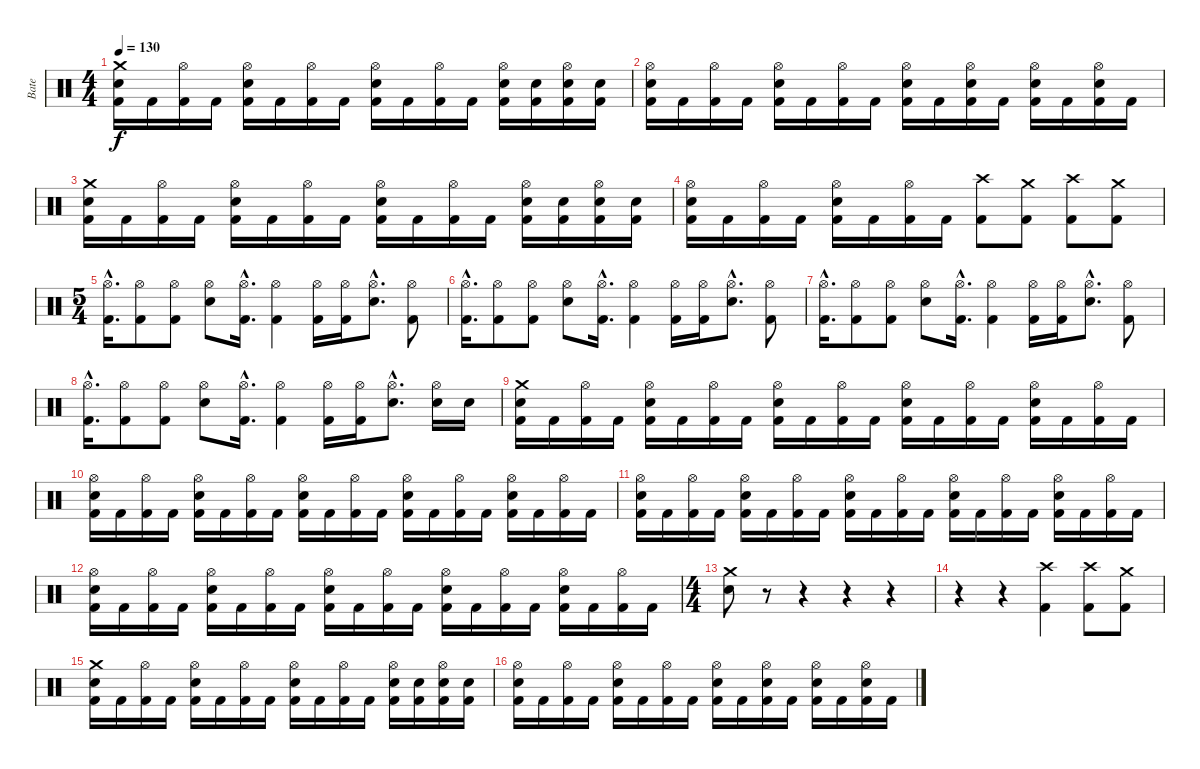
\track ("Bate" "Bate") {instrument percussion}
\staff {score}
\articulation defaults
\ts (4 4)
\tempo 130
\clef neutral
\ks c
("Crash medium (hit)" "Snare (hit) 2" "Kick (hit) 2").16{dy f} "Kick (hit) 2".16 ("Hi-Hat (open)" "Kick (hit) 2").16 "Kick (hit) 2".16 ("Hi-Hat (open)" "Snare (hit) 2" "Kick (hit) 2").16 "Kick (hit) 2".16 ("Hi-Hat (open)" "Kick (hit) 2").16 "Kick (hit) 2".16 ("Hi-Hat (open)" "Snare (hit) 2" "Kick (hit) 2").16 "Kick (hit) 2".16 ("Hi-Hat (open)" "Kick (hit) 2").16 "Kick (hit) 2".16 ("Hi-Hat (open)" "Snare (hit) 2" "Kick (hit) 2").16 ("Snare (hit) 2" "Kick (hit) 2").16 ("Hi-Hat (open)" "Snare (hit) 2" "Kick (hit) 2").16 ("Snare (hit) 2" "Kick (hit) 2").16 |
("Hi-Hat (open)" "Snare (hit) 2" "Kick (hit) 2").16 "Kick (hit) 2".16 ("Hi-Hat (open)" "Kick (hit) 2").16 "Kick (hit) 2".16 ("Hi-Hat (open)" "Snare (hit) 2" "Kick (hit) 2").16 "Kick (hit) 2".16 ("Hi-Hat (open)" "Kick (hit) 2").16 "Kick (hit) 2".16 ("Hi-Hat (open)" "Snare (hit) 2" "Kick (hit) 2").16 "Kick (hit) 2".16 ("Hi-Hat (open)" "Snare (hit) 2" "Kick (hit) 2").16 "Kick (hit) 2".16 ("Hi-Hat (open)" "Snare (hit) 2" "Kick (hit) 2").16 "Kick (hit) 2".16 ("Hi-Hat (open)" "Snare (hit) 2" "Kick (hit) 2").16 "Kick (hit) 2".16 |
("Crash medium (hit)" "Snare (hit) 2" "Kick (hit) 2").16 "Kick (hit) 2".16 ("Hi-Hat (open)" "Kick (hit) 2").16 "Kick (hit) 2".16 ("Hi-Hat (open)" "Snare (hit) 2" "Kick (hit) 2").16 "Kick (hit) 2".16 ("Hi-Hat (open)" "Kick (hit) 2").16 "Kick (hit) 2".16 ("Hi-Hat (open)" "Snare (hit) 2" "Kick (hit) 2").16 "Kick (hit) 2".16 ("Hi-Hat (open)" "Kick (hit) 2").16 "Kick (hit) 2".16 ("Hi-Hat (open)" "Snare (hit) 2" "Kick (hit) 2").16 ("Snare (hit) 2" "Kick (hit) 2").16 ("Hi-Hat (open)" "Snare (hit) 2" "Kick (hit) 2").16 ("Snare (hit) 2" "Kick (hit) 2").16 |
("Hi-Hat (open)" "Snare (hit) 2" "Kick (hit) 2").16 "Kick (hit) 2".16 ("Hi-Hat (open)" "Kick (hit) 2").16 "Kick (hit) 2".16 ("Hi-Hat (open)" "Snare (hit) 2" "Kick (hit) 2").16 "Kick (hit) 2".16 ("Hi-Hat (open)" "Kick (hit) 2").16 "Kick (hit) 2".16 ("Crash high (hit)" "Kick (hit) 2").8 ("Crash medium (hit)" "Kick (hit) 2").8 ("Crash high (hit)" "Kick (hit) 2").8 ("Crash medium (hit)" "Kick (hit) 2").8 |
\ts (5 4)
("Hi-Hat (open)"{hac} "Kick (hit) 2"{hac}).16{d} ("Hi-Hat (open)" "Kick (hit) 2").8 ("Hi-Hat (open)" "Kick (hit) 2").8 ("Hi-Hat (open)" "Snare (hit) 2").8 ("Hi-Hat (open)"{hac} "Kick (hit) 2"{hac}).16{d} ("Hi-Hat (open)" "Kick (hit) 2").4 ("Hi-Hat (open)" "Kick (hit) 2").16 ("Hi-Hat (open)" "Kick (hit) 2").16 ("Hi-Hat (open)"{hac} "Snare (hit) 2"{hac}).8{d} ("Hi-Hat (open)" "Kick (hit) 2").8 |
("Hi-Hat (open)"{hac} "Kick (hit) 2"{hac}).16{d} ("Hi-Hat (open)" "Kick (hit) 2").8 ("Hi-Hat (open)" "Kick (hit) 2").8 ("Hi-Hat (open)" "Snare (hit) 2").8 ("Hi-Hat (open)"{hac} "Kick (hit) 2"{hac}).16{d} ("Hi-Hat (open)" "Kick (hit) 2").4 ("Hi-Hat (open)" "Kick (hit) 2").16 ("Hi-Hat (open)" "Kick (hit) 2").16 ("Hi-Hat (open)"{hac} "Snare (hit) 2"{hac}).8{d} ("Hi-Hat (open)" "Kick (hit) 2").8 |
("Hi-Hat (open)"{hac} "Kick (hit) 2"{hac}).16{d} ("Hi-Hat (open)" "Kick (hit) 2").8 ("Hi-Hat (open)" "Kick (hit) 2").8 ("Hi-Hat (open)" "Snare (hit) 2").8 ("Hi-Hat (open)"{hac} "Kick (hit) 2"{hac}).16{d} ("Hi-Hat (open)" "Kick (hit) 2").4 ("Hi-Hat (open)" "Kick (hit) 2").16 ("Hi-Hat (open)" "Kick (hit) 2").16 ("Hi-Hat (open)"{hac} "Snare (hit) 2"{hac}).8{d} ("Hi-Hat (open)" "Kick (hit) 2").8 |
("Hi-Hat (open)"{hac} "Kick (hit) 2"{hac}).16{d} ("Hi-Hat (open)" "Kick (hit) 2").8 ("Hi-Hat (open)" "Kick (hit) 2").8 ("Hi-Hat (open)" "Snare (hit) 2").8 ("Hi-Hat (open)"{hac} "Kick (hit) 2"{hac}).16{d} ("Hi-Hat (open)" "Kick (hit) 2").4 ("Hi-Hat (open)" "Kick (hit) 2").16 ("Hi-Hat (open)" "Kick (hit) 2").16 ("Hi-Hat (open)"{hac} "Snare (hit) 2"{hac}).8{d} ("Hi-Hat (open)" "Snare (hit) 2").16 "Snare (hit) 2".16 |
("Crash medium (hit)" "Snare (hit) 2" "Kick (hit) 2").16 "Kick (hit) 2".16 ("Hi-Hat (open)" "Kick (hit) 2").16 "Kick (hit) 2".16 ("Hi-Hat (open)" "Snare (hit) 2" "Kick (hit) 2").16 "Kick (hit) 2".16 ("Hi-Hat (open)" "Kick (hit) 2").16 "Kick (hit) 2".16 ("Hi-Hat (open)" "Snare (hit) 2" "Kick (hit) 2").16 "Kick (hit) 2".16 ("Hi-Hat (open)" "Kick (hit) 2").16 "Kick (hit) 2".16 ("Hi-Hat (open)" "Snare (hit) 2" "Kick (hit) 2").16 "Kick (hit) 2".16 ("Hi-Hat (open)" "Kick (hit) 2").16 "Kick (hit) 2".16 ("Hi-Hat (open)" "Snare (hit) 2" "Kick (hit) 2").16 "Kick (hit) 2".16 ("Hi-Hat (open)" "Kick (hit) 2").16 "Kick (hit) 2".16 |
("Hi-Hat (open)" "Snare (hit) 2" "Kick (hit) 2").16 "Kick (hit) 2".16 ("Hi-Hat (open)" "Kick (hit) 2").16 "Kick (hit) 2".16 ("Hi-Hat (open)" "Snare (hit) 2" "Kick (hit) 2").16 "Kick (hit) 2".16 ("Hi-Hat (open)" "Kick (hit) 2").16 "Kick (hit) 2".16 ("Hi-Hat (open)" "Snare (hit) 2" "Kick (hit) 2").16 "Kick (hit) 2".16 ("Hi-Hat (open)" "Kick (hit) 2").16 "Kick (hit) 2".16 ("Hi-Hat (open)" "Snare (hit) 2" "Kick (hit) 2").16 "Kick (hit) 2".16 ("Hi-Hat (open)" "Kick (hit) 2").16 "Kick (hit) 2".16 ("Hi-Hat (open)" "Snare (hit) 2" "Kick (hit) 2").16 "Kick (hit) 2".16 ("Hi-Hat (open)" "Kick (hit) 2").16 "Kick (hit) 2".16 |
("Hi-Hat (open)" "Snare (hit) 2" "Kick (hit) 2").16 "Kick (hit) 2".16 ("Hi-Hat (open)" "Kick (hit) 2").16 "Kick (hit) 2".16 ("Hi-Hat (open)" "Snare (hit) 2" "Kick (hit) 2").16 "Kick (hit) 2".16 ("Hi-Hat (open)" "Kick (hit) 2").16 "Kick (hit) 2".16 ("Hi-Hat (open)" "Snare (hit) 2" "Kick (hit) 2").16 "Kick (hit) 2".16 ("Hi-Hat (open)" "Kick (hit) 2").16 "Kick (hit) 2".16 ("Hi-Hat (open)" "Snare (hit) 2" "Kick (hit) 2").16 "Kick (hit) 2".16 ("Hi-Hat (open)" "Kick (hit) 2").16 "Kick (hit) 2".16 ("Hi-Hat (open)" "Snare (hit) 2" "Kick (hit) 2").16 "Kick (hit) 2".16 ("Hi-Hat (open)" "Kick (hit) 2").16 "Kick (hit) 2".16 |
("Hi-Hat (open)" "Snare (hit) 2" "Kick (hit) 2").16 "Kick (hit) 2".16 ("Hi-Hat (open)" "Kick (hit) 2").16 "Kick (hit) 2".16 ("Hi-Hat (open)" "Snare (hit) 2" "Kick (hit) 2").16 "Kick (hit) 2".16 ("Hi-Hat (open)" "Kick (hit) 2").16 "Kick (hit) 2".16 ("Hi-Hat (open)" "Snare (hit) 2" "Kick (hit) 2").16 "Kick (hit) 2".16 ("Hi-Hat (open)" "Kick (hit) 2").16 "Kick (hit) 2".16 ("Hi-Hat (open)" "Snare (hit) 2" "Kick (hit) 2").16 "Kick (hit) 2".16 ("Hi-Hat (open)" "Kick (hit) 2").16 "Kick (hit) 2".16 ("Hi-Hat (open)" "Snare (hit) 2" "Kick (hit) 2").16 "Kick (hit) 2".16 ("Hi-Hat (open)" "Kick (hit) 2").16 "Kick (hit) 2".16 |
\ts (4 4)
("Crash medium (hit)" "Snare (hit) 2").8 r.8 r.4 r.4 r.4 |
r.4 r.4 ("Crash high (hit)" "Kick (hit) 2").4 ("Crash high (hit)" "Kick (hit) 2").8 ("Crash medium (hit)" "Kick (hit) 2").8 |
("Crash medium (hit)" "Snare (hit) 2" "Kick (hit) 2").16 "Kick (hit) 2".16 ("Hi-Hat (open)" "Kick (hit) 2").16 "Kick (hit) 2".16 ("Hi-Hat (open)" "Snare (hit) 2" "Kick (hit) 2").16 "Kick (hit) 2".16 ("Hi-Hat (open)" "Kick (hit) 2").16 "Kick (hit) 2".16 ("Hi-Hat (open)" "Snare (hit) 2" "Kick (hit) 2").16 "Kick (hit) 2".16 ("Hi-Hat (open)" "Kick (hit) 2").16 "Kick (hit) 2".16 ("Hi-Hat (open)" "Snare (hit) 2" "Kick (hit) 2").16 ("Snare (hit) 2" "Kick (hit) 2").16 ("Hi-Hat (open)" "Snare (hit) 2" "Kick (hit) 2").16 ("Snare (hit) 2" "Kick (hit) 2").16 |
("Hi-Hat (open)" "Snare (hit) 2" "Kick (hit) 2").16 "Kick (hit) 2".16 ("Hi-Hat (open)" "Kick (hit) 2").16 "Kick (hit) 2".16 ("Hi-Hat (open)" "Snare (hit) 2" "Kick (hit) 2").16 "Kick (hit) 2".16 ("Hi-Hat (open)" "Kick (hit) 2").16 "Kick (hit) 2".16 ("Hi-Hat (open)" "Snare (hit) 2" "Kick (hit) 2").16 "Kick (hit) 2".16 ("Hi-Hat (open)" "Snare (hit) 2" "Kick (hit) 2").16 "Kick (hit) 2".16 ("Hi-Hat (open)" "Snare (hit) 2" "Kick (hit) 2").16 "Kick (hit) 2".16 ("Hi-Hat (open)" "Snare (hit) 2" "Kick (hit) 2").16 "Kick (hit) 2".16
